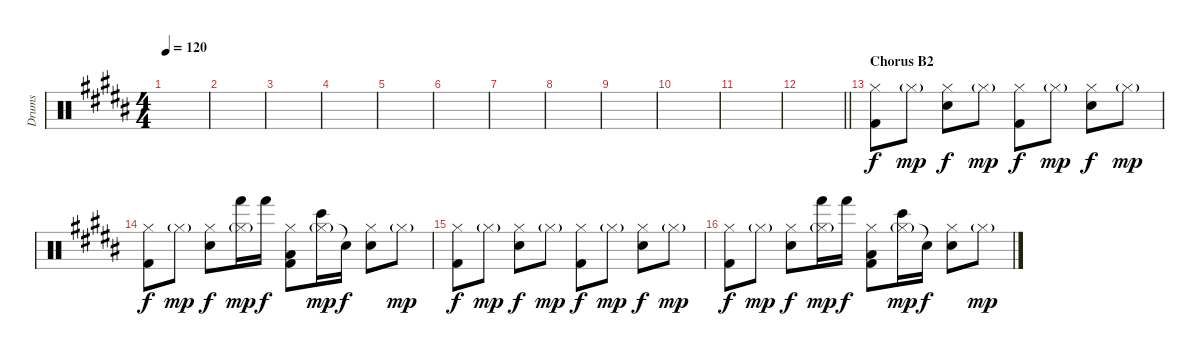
\track ("Drums" "Drums") {instrument percussion}
\staff {score}
\articulation defaults
\ts (4 4)
\tempo 120
\clef neutral
\ks g#minor
|
|
|
|
|
|
|
|
|
|
|
\barLineRight lightlight
|
\section ("" "Chorus B2")
("Hi-Hat (closed)" "Kick (hit) 2").8{dy f} "Hi-Hat (closed)"{g}.8{dy mp} ("Hi-Hat (closed)" "Electric Snare (hit)").8{dy f} "Hi-Hat (closed)"{g}.8{dy mp} ("Hi-Hat (closed)" "Kick (hit) 2").8{dy f} "Hi-Hat (closed)"{g}.8{dy mp} ("Hi-Hat (closed)" "Electric Snare (hit)").8{dy f} "Hi-Hat (closed)"{g}.8{dy mp} |
("Hi-Hat (closed)" "Kick (hit) 2").8{dy f} "Hi-Hat (closed)"{g}.8{dy mp} ("Hi-Hat (closed)" "Electric Snare (hit)").8{dy f} ("Hi-Hat (closed)"{g} "Hand (hit)").16{dy mp} "Hand (hit)".16{dy f} ("Hi-Hat (closed)" "Low Tom (hit)" "Kick (hit) 2").8 ("Hi-Hat (closed)"{g} "Bongo High (hit)").16{dy mp} "Snare (hit)"{t}.16{dy f} ("Hi-Hat (closed)" "Electric Snare (hit)").8 "Hi-Hat (closed)"{g}.8{dy mp} |
("Hi-Hat (closed)" "Kick (hit) 2").8{dy f} "Hi-Hat (closed)"{g}.8{dy mp} ("Hi-Hat (closed)" "Electric Snare (hit)").8{dy f} "Hi-Hat (closed)"{g}.8{dy mp} ("Hi-Hat (closed)" "Kick (hit) 2").8{dy f} "Hi-Hat (closed)"{g}.8{dy mp} ("Hi-Hat (closed)" "Electric Snare (hit)").8{dy f} "Hi-Hat (closed)"{g}.8{dy mp} |
("Hi-Hat (closed)" "Kick (hit) 2").8{dy f} "Hi-Hat (closed)"{g}.8{dy mp} ("Hi-Hat (closed)" "Electric Snare (hit)").8{dy f} ("Hi-Hat (closed)"{g} "Hand (hit)").16{dy mp} "Hand (hit)".16{dy f} ("Hi-Hat (closed)" "Low Tom (hit)" "Kick (hit) 2").8 ("Hi-Hat (closed)"{g} "Bongo High (hit)").16{dy mp} "Snare (hit)"{t}.16{dy f} ("Hi-Hat (closed)" "Electric Snare (hit)").8 "Hi-Hat (closed)"{g}.8{dy mp}
